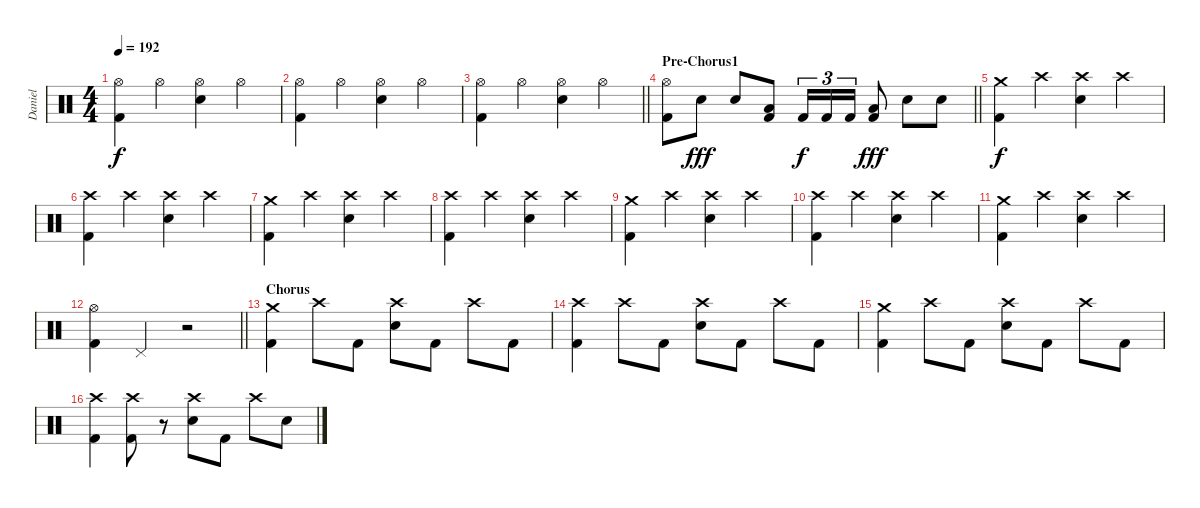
\track ("Daniel" "Daniel") {instrument percussion}
\staff {score}
\articulation defaults
\ts (4 4)
\tempo 192
\clef neutral
\ks c
("Kick (hit) 2" "Hi-Hat (open)").4{dy f} "Hi-Hat (open)".4 ("Electric Snare (hit)" "Hi-Hat (open)").4 "Hi-Hat (open)".4 |
("Kick (hit) 2" "Hi-Hat (open)").4 "Hi-Hat (open)".4 ("Electric Snare (hit)" "Hi-Hat (open)").4 "Hi-Hat (open)".4 |
\barLineRight lightlight
("Kick (hit) 2" "Hi-Hat (open)").4 "Hi-Hat (open)".4 ("Electric Snare (hit)" "Hi-Hat (open)").4 "Hi-Hat (open)".4 |
\section ("" "Pre-Chorus1")
\barLineRight lightlight
("Kick (hit) 2" "Hi-Hat (open)").8 "Electric Snare (hit)".8{dy fff} "Electric Snare (hit)".8 ("Kick (hit) 2" "Low Tom (hit)").8 "Kick (hit) 2".16{tu (3 2) dy f} "Kick (hit) 2".16{tu (3 2)} "Kick (hit) 2".16{tu (3 2)} ("Kick (hit) 2" "Low Tom (hit)").8{dy fff} "Electric Snare (hit)".8 "Electric Snare (hit)".8 |
("Kick (hit) 2" "Crash medium (hit)").4{dy f} "Crash high (hit)".4 ("Electric Snare (hit)" "Crash high (hit)").4 "Crash high (hit)".4 |
("Kick (hit) 2" "Crash high (hit)").4 "Crash high (hit)".4 ("Electric Snare (hit)" "Crash high (hit)").4 "Crash high (hit)".4 |
("Kick (hit) 2" "Crash medium (hit)").4 "Crash high (hit)".4 ("Electric Snare (hit)" "Crash high (hit)").4 "Crash high (hit)".4 |
("Kick (hit) 2" "Crash high (hit)").4 "Crash high (hit)".4 ("Electric Snare (hit)" "Crash high (hit)").4 "Crash high (hit)".4 |
("Kick (hit) 2" "Crash medium (hit)").4 "Crash high (hit)".4 ("Electric Snare (hit)" "Crash high (hit)").4 "Crash high (hit)".4 |
("Kick (hit) 2" "Crash high (hit)").4 "Crash high (hit)".4 ("Electric Snare (hit)" "Crash high (hit)").4 "Crash high (hit)".4 |
("Kick (hit) 2" "Crash medium (hit)").4 "Crash high (hit)".4 ("Electric Snare (hit)" "Crash high (hit)").4 "Crash high (hit)".4 |
\barLineRight lightlight
("Kick (hit) 2" "Hi-Hat (open)").4 "Pedal Hi-Hat (hit)".4 r.2 |
\section ("" "Chorus")
("Kick (hit) 2" "Crash medium (hit)").4 "Crash high (hit)".8 "Kick (hit) 2".8 ("Electric Snare (hit)" "Crash high (hit)").8 "Kick (hit) 2".8 "Crash high (hit)".8 "Kick (hit) 2".8 |
("Kick (hit) 2" "Crash high (hit)").4 "Crash high (hit)".8 "Kick (hit) 2".8 ("Electric Snare (hit)" "Crash high (hit)").8 "Kick (hit) 2".8 "Crash high (hit)".8 "Kick (hit) 2".8 |
("Kick (hit) 2" "Crash medium (hit)").4 "Crash high (hit)".8 "Kick (hit) 2".8 ("Electric Snare (hit)" "Crash high (hit)").8 "Kick (hit) 2".8 "Crash high (hit)".8 "Kick (hit) 2".8 |
("Kick (hit) 2" "Crash high (hit)").4 ("Kick (hit) 2" "Crash high (hit)").8 r.8 ("Electric Snare (hit)" "Crash high (hit)").8 "Kick (hit) 2".8 "Crash high (hit)".8 "Electric Snare (hit)".8
